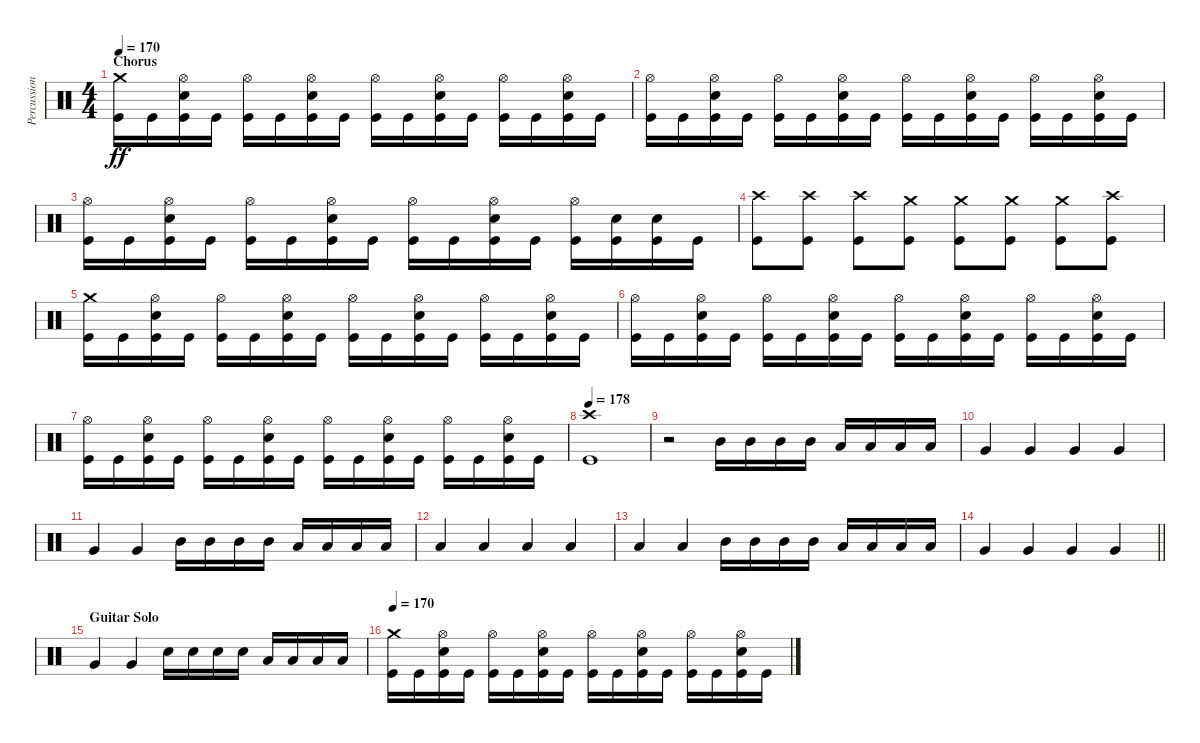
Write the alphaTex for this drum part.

\track ("Percussion" "Percussion") {instrument percussion}
\staff {score}
\articulation defaults
\ts (4 4)
\section ("" "Chorus")
\tempo 170
\clef neutral
\ks c
("Crash medium (hit)" "Kick (hit)").16{dy ff} "Kick (hit)".16 ("Hi-Hat (open)" "Snare (hit) 2" "Kick (hit)").16 "Kick (hit)".16 ("Hi-Hat (open)" "Kick (hit)").16 "Kick (hit)".16 ("Hi-Hat (open)" "Snare (hit) 2" "Kick (hit)").16 "Kick (hit)".16 ("Hi-Hat (open)" "Kick (hit)").16 "Kick (hit)".16 ("Hi-Hat (open)" "Snare (hit) 2" "Kick (hit)").16 "Kick (hit)".16 ("Hi-Hat (open)" "Kick (hit)").16 "Kick (hit)".16 ("Hi-Hat (open)" "Snare (hit) 2" "Kick (hit)").16 "Kick (hit)".16 |
("Hi-Hat (open)" "Kick (hit)").16 "Kick (hit)".16 ("Hi-Hat (open)" "Snare (hit) 2" "Kick (hit)").16 "Kick (hit)".16 ("Hi-Hat (open)" "Kick (hit)").16 "Kick (hit)".16 ("Hi-Hat (open)" "Snare (hit) 2" "Kick (hit)").16 "Kick (hit)".16 ("Hi-Hat (open)" "Kick (hit)").16 "Kick (hit)".16 ("Hi-Hat (open)" "Snare (hit) 2" "Kick (hit)").16 "Kick (hit)".16 ("Hi-Hat (open)" "Kick (hit)").16 "Kick (hit)".16 ("Hi-Hat (open)" "Snare (hit) 2" "Kick (hit)").16 "Kick (hit)".16 |
("Hi-Hat (open)" "Kick (hit)").16 "Kick (hit)".16 ("Hi-Hat (open)" "Snare (hit) 2" "Kick (hit)").16 "Kick (hit)".16 ("Hi-Hat (open)" "Kick (hit)").16 "Kick (hit)".16 ("Hi-Hat (open)" "Snare (hit) 2" "Kick (hit)").16 "Kick (hit)".16 ("Hi-Hat (open)" "Kick (hit)").16 "Kick (hit)".16 ("Hi-Hat (open)" "Snare (hit) 2" "Kick (hit)").16 "Kick (hit)".16 ("Hi-Hat (open)" "Kick (hit)").16 ("Snare (hit) 2" "Kick (hit)").16 ("Snare (hit) 2" "Kick (hit)").16 "Kick (hit)".16 |
("Crash high (hit)" "Kick (hit)").8 ("Crash high (hit)" "Kick (hit)").8 ("Crash high (hit)" "Kick (hit)").8 ("Crash medium (hit)" "Kick (hit)").8 ("Crash medium (hit)" "Kick (hit)").8 ("Crash medium (hit)" "Kick (hit)").8 ("Crash medium (hit)" "Kick (hit)").8 ("Crash high (hit)" "Kick (hit)").8 |
("Crash medium (hit)" "Kick (hit)").16 "Kick (hit)".16 ("Hi-Hat (open)" "Snare (hit) 2" "Kick (hit)").16 "Kick (hit)".16 ("Hi-Hat (open)" "Kick (hit)").16 "Kick (hit)".16 ("Hi-Hat (open)" "Snare (hit) 2" "Kick (hit)").16 "Kick (hit)".16 ("Hi-Hat (open)" "Kick (hit)").16 "Kick (hit)".16 ("Hi-Hat (open)" "Snare (hit) 2" "Kick (hit)").16 "Kick (hit)".16 ("Hi-Hat (open)" "Kick (hit)").16 "Kick (hit)".16 ("Hi-Hat (open)" "Snare (hit) 2" "Kick (hit)").16 "Kick (hit)".16 |
("Hi-Hat (open)" "Kick (hit)").16 "Kick (hit)".16 ("Hi-Hat (open)" "Snare (hit) 2" "Kick (hit)").16 "Kick (hit)".16 ("Hi-Hat (open)" "Kick (hit)").16 "Kick (hit)".16 ("Hi-Hat (open)" "Snare (hit) 2" "Kick (hit)").16 "Kick (hit)".16 ("Hi-Hat (open)" "Kick (hit)").16 "Kick (hit)".16 ("Hi-Hat (open)" "Snare (hit) 2" "Kick (hit)").16 "Kick (hit)".16 ("Hi-Hat (open)" "Kick (hit)").16 "Kick (hit)".16 ("Hi-Hat (open)" "Snare (hit) 2" "Kick (hit)").16 "Kick (hit)".16 |
("Hi-Hat (open)" "Kick (hit)").16 "Kick (hit)".16 ("Hi-Hat (open)" "Snare (hit) 2" "Kick (hit)").16 "Kick (hit)".16 ("Hi-Hat (open)" "Kick (hit)").16 "Kick (hit)".16 ("Hi-Hat (open)" "Snare (hit) 2" "Kick (hit)").16 "Kick (hit)".16 ("Hi-Hat (open)" "Kick (hit)").16 "Kick (hit)".16 ("Hi-Hat (open)" "Snare (hit) 2" "Kick (hit)").16 "Kick (hit)".16 ("Hi-Hat (open)" "Kick (hit)").16 "Kick (hit)".16 ("Hi-Hat (open)" "Snare (hit) 2" "Kick (hit)").16 "Kick (hit)".16 |
\tempo 178
("Crash high (hit)" "Kick (hit)").1 |
r.2 "Mid Tom (hit)".16 "Mid Tom (hit)".16 "Mid Tom (hit)".16 "Mid Tom (hit)".16 "Low Tom (hit)".16 "Low Tom (hit)".16 "Low Tom (hit)".16 "Low Tom (hit)".16 |
"Very Low Tom (hit)".4 "Very Low Tom (hit)".4 "Very Low Tom (hit)".4 "Very Low Tom (hit)".4 |
"Very Low Tom (hit)".4 "Very Low Tom (hit)".4 "Mid Tom (hit)".16 "Mid Tom (hit)".16 "Mid Tom (hit)".16 "Mid Tom (hit)".16 "Low Tom (hit)".16 "Low Tom (hit)".16 "Low Tom (hit)".16 "Low Tom (hit)".16 |
"Low Floor Tom (hit)".4 "Low Floor Tom (hit)".4 "Low Floor Tom (hit)".4 "Low Floor Tom (hit)".4 |
"Low Floor Tom (hit)".4 "Low Floor Tom (hit)".4 "Mid Tom (hit)".16 "Mid Tom (hit)".16 "Mid Tom (hit)".16 "Mid Tom (hit)".16 "Low Tom (hit)".16 "Low Tom (hit)".16 "Low Tom (hit)".16 "Low Tom (hit)".16 |
\barLineRight lightlight "Very Low Tom (hit)".4 "Very Low Tom (hit)".4 "Very Low Tom (hit)".4 "Very Low Tom (hit)".4
|
\section ("" "Guitar Solo")
"Very Low Tom (hit)".4 "Very Low Tom (hit)".4 "Snare (hit) 2".16 "Snare (hit) 2".16 "Snare (hit) 2".16 "Snare (hit) 2".16 "Low Tom (hit)".16 "Low Tom (hit)".16 "Low Tom (hit)".16 "Low Tom (hit)".16 |
\tempo 170
("Crash medium (hit)" "Kick (hit)").16 "Kick (hit)".16 ("Hi-Hat (open)" "Snare (hit) 2" "Kick (hit)").16 "Kick (hit)".16 ("Hi-Hat (open)" "Kick (hit)").16 "Kick (hit)".16 ("Hi-Hat (open)" "Snare (hit) 2" "Kick (hit)").16 "Kick (hit)".16 ("Hi-Hat (open)" "Kick (hit)").16 "Kick (hit)".16 ("Hi-Hat (open)" "Snare (hit) 2" "Kick (hit)").16 "Kick (hit)".16 ("Hi-Hat (open)" "Kick (hit)").16 "Kick (hit)".16 ("Hi-Hat (open)" "Snare (hit) 2" "Kick (hit)").16 "Kick (hit)".16
